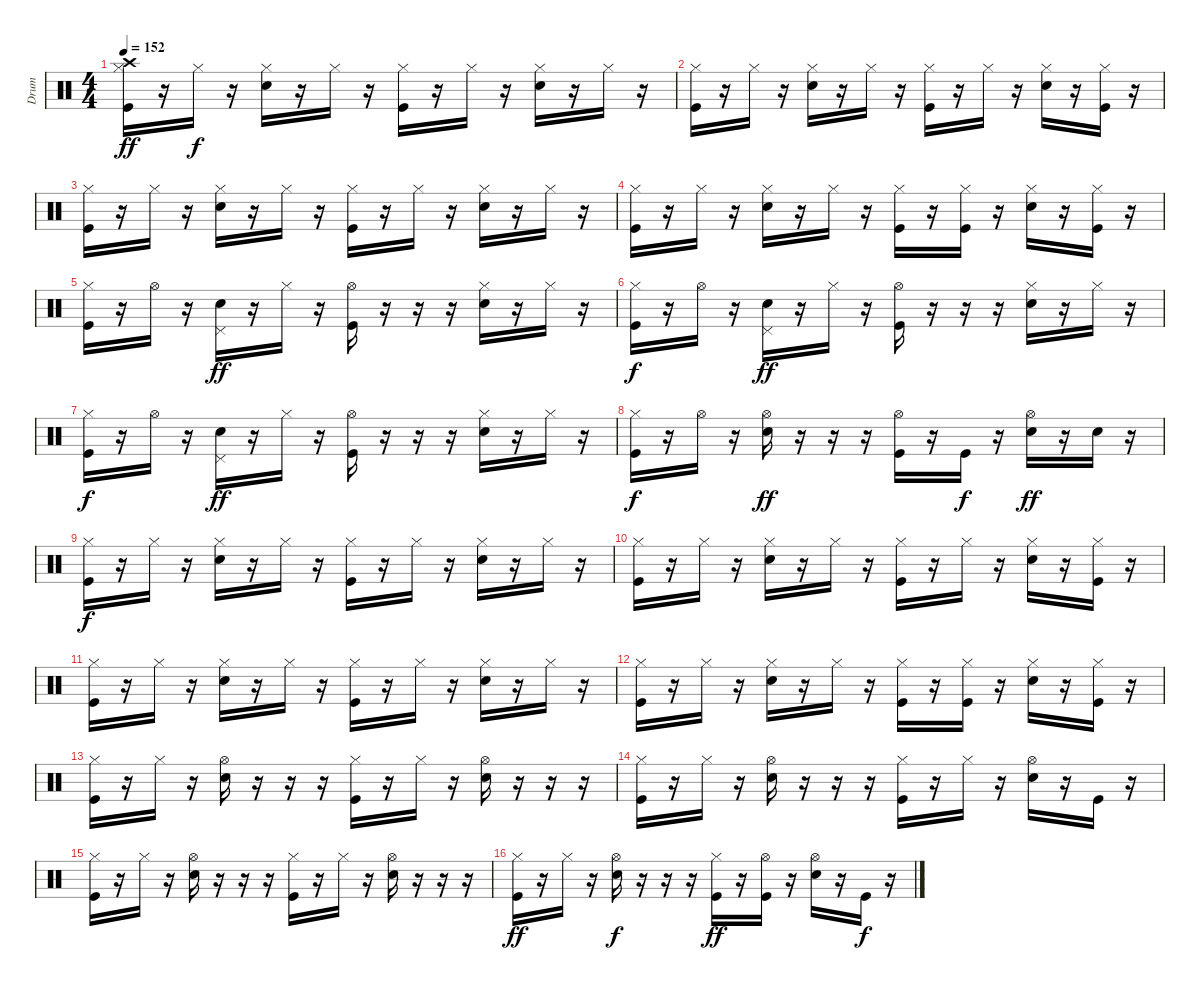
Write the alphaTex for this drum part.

\track ("Drum" "Drum") {instrument percussion}
\staff {score}
\articulation defaults
\ts (4 4)
\tempo 152
\clef neutral
\ks c
("Crash high (hit)" "Hi-Hat (closed)" "Kick (hit)").16{dy ff} r.16 "Hi-Hat (closed)".16{dy f} r.16 ("Hi-Hat (closed)" "Electric Snare (hit)").16 r.16 "Hi-Hat (closed)".16 r.16 ("Hi-Hat (closed)" "Kick (hit)").16 r.16 "Hi-Hat (closed)".16 r.16 ("Hi-Hat (closed)" "Electric Snare (hit)").16 r.16 "Hi-Hat (closed)".16 r.16 |
("Hi-Hat (closed)" "Kick (hit)").16 r.16 "Hi-Hat (closed)".16 r.16 ("Hi-Hat (closed)" "Electric Snare (hit)").16 r.16 "Hi-Hat (closed)".16 r.16 ("Hi-Hat (closed)" "Kick (hit)").16 r.16 "Hi-Hat (closed)".16 r.16 ("Hi-Hat (closed)" "Electric Snare (hit)").16 r.16 ("Hi-Hat (closed)" "Kick (hit)").16 r.16 |
("Hi-Hat (closed)" "Kick (hit)").16 r.16 "Hi-Hat (closed)".16 r.16 ("Hi-Hat (closed)" "Electric Snare (hit)").16 r.16 "Hi-Hat (closed)".16 r.16 ("Hi-Hat (closed)" "Kick (hit)").16 r.16 "Hi-Hat (closed)".16 r.16 ("Hi-Hat (closed)" "Electric Snare (hit)").16 r.16 "Hi-Hat (closed)".16 r.16 |
("Hi-Hat (closed)" "Kick (hit)").16 r.16 "Hi-Hat (closed)".16 r.16 ("Hi-Hat (closed)" "Electric Snare (hit)").16 r.16 "Hi-Hat (closed)".16 r.16 ("Hi-Hat (closed)" "Kick (hit)").16 r.16 ("Hi-Hat (closed)" "Kick (hit)").16 r.16 ("Hi-Hat (closed)" "Electric Snare (hit)").16 r.16 ("Hi-Hat (closed)" "Kick (hit)").16 r.16 |
("Hi-Hat (closed)" "Kick (hit)").16 r.16 "Hi-Hat (open)".16 r.16 ("Pedal Hi-Hat (hit)" "Electric Snare (hit)").16{dy ff} r.16 "Hi-Hat (closed)".16 r.16 ("Hi-Hat (open)" "Kick (hit)").16 r.16 r.16 r.16 ("Hi-Hat (closed)" "Electric Snare (hit)").16 r.16 "Hi-Hat (closed)".16 r.16 |
("Hi-Hat (closed)" "Kick (hit)").16{dy f} r.16 "Hi-Hat (open)".16 r.16 ("Pedal Hi-Hat (hit)" "Electric Snare (hit)").16{dy ff} r.16 "Hi-Hat (closed)".16 r.16 ("Hi-Hat (open)" "Kick (hit)").16 r.16 r.16 r.16 ("Hi-Hat (closed)" "Electric Snare (hit)").16 r.16 "Hi-Hat (closed)".16 r.16 |
("Hi-Hat (closed)" "Kick (hit)").16{dy f} r.16 "Hi-Hat (open)".16 r.16 ("Pedal Hi-Hat (hit)" "Electric Snare (hit)").16{dy ff} r.16 "Hi-Hat (closed)".16 r.16 ("Hi-Hat (open)" "Kick (hit)").16 r.16 r.16 r.16 ("Hi-Hat (closed)" "Electric Snare (hit)").16 r.16 "Hi-Hat (closed)".16 r.16 |
("Hi-Hat (closed)" "Kick (hit)").16{dy f} r.16 "Hi-Hat (open)".16 r.16 ("Hi-Hat (open)" "Electric Snare (hit)").16{dy ff} r.16 r.16 r.16 ("Hi-Hat (open)" "Kick (hit)").16 r.16 "Kick (hit)".16{dy f} r.16 ("Hi-Hat (open)" "Electric Snare (hit)").16{dy ff} r.16 "Electric Snare (hit)".16 r.16 |
("Hi-Hat (closed)" "Kick (hit)").16{dy f} r.16 "Hi-Hat (closed)".16 r.16 ("Hi-Hat (closed)" "Electric Snare (hit)").16 r.16 "Hi-Hat (closed)".16 r.16 ("Hi-Hat (closed)" "Kick (hit)").16 r.16 "Hi-Hat (closed)".16 r.16 ("Hi-Hat (closed)" "Electric Snare (hit)").16 r.16 "Hi-Hat (closed)".16 r.16 |
("Hi-Hat (closed)" "Kick (hit)").16 r.16 "Hi-Hat (closed)".16 r.16 ("Hi-Hat (closed)" "Electric Snare (hit)").16 r.16 "Hi-Hat (closed)".16 r.16 ("Hi-Hat (closed)" "Kick (hit)").16 r.16 "Hi-Hat (closed)".16 r.16 ("Hi-Hat (closed)" "Electric Snare (hit)").16 r.16 ("Hi-Hat (closed)" "Kick (hit)").16 r.16 |
("Hi-Hat (closed)" "Kick (hit)").16 r.16 "Hi-Hat (closed)".16 r.16 ("Hi-Hat (closed)" "Electric Snare (hit)").16 r.16 "Hi-Hat (closed)".16 r.16 ("Hi-Hat (closed)" "Kick (hit)").16 r.16 "Hi-Hat (closed)".16 r.16 ("Hi-Hat (closed)" "Electric Snare (hit)").16 r.16 "Hi-Hat (closed)".16 r.16 |
("Hi-Hat (closed)" "Kick (hit)").16 r.16 "Hi-Hat (closed)".16 r.16 ("Hi-Hat (closed)" "Electric Snare (hit)").16 r.16 "Hi-Hat (closed)".16 r.16 ("Hi-Hat (closed)" "Kick (hit)").16 r.16 ("Hi-Hat (closed)" "Kick (hit)").16 r.16 ("Hi-Hat (closed)" "Electric Snare (hit)").16 r.16 ("Hi-Hat (closed)" "Kick (hit)").16 r.16 |
("Hi-Hat (closed)" "Kick (hit)").16 r.16 "Hi-Hat (closed)".16 r.16 ("Hi-Hat (open)" "Electric Snare (hit)").16 r.16 r.16 r.16 ("Hi-Hat (closed)" "Kick (hit)").16 r.16 "Hi-Hat (closed)".16 r.16 ("Hi-Hat (open)" "Electric Snare (hit)").16 r.16 r.16 r.16 |
("Hi-Hat (closed)" "Kick (hit)").16 r.16 "Hi-Hat (closed)".16 r.16 ("Hi-Hat (open)" "Electric Snare (hit)").16 r.16 r.16 r.16 ("Hi-Hat (closed)" "Kick (hit)").16 r.16 "Hi-Hat (closed)".16 r.16 ("Hi-Hat (open)" "Electric Snare (hit)").16 r.16 "Kick (hit)".16 r.16 |
("Hi-Hat (closed)" "Kick (hit)").16 r.16 "Hi-Hat (closed)".16 r.16 ("Hi-Hat (open)" "Electric Snare (hit)").16 r.16 r.16 r.16 ("Hi-Hat (closed)" "Kick (hit)").16 r.16 "Hi-Hat (closed)".16 r.16 ("Hi-Hat (open)" "Electric Snare (hit)").16 r.16 r.16 r.16 |
("Hi-Hat (closed)" "Kick (hit)").16{dy ff} r.16 "Hi-Hat (closed)".16 r.16 ("Hi-Hat (open)" "Electric Snare (hit)").16{dy f} r.16 r.16 r.16 ("Hi-Hat (closed)" "Kick (hit)").16{dy ff} r.16 ("Hi-Hat (open)" "Kick (hit)").16 r.16 ("Hi-Hat (open)" "Electric Snare (hit)").16 r.16 "Kick (hit)".16{dy f} r.16
